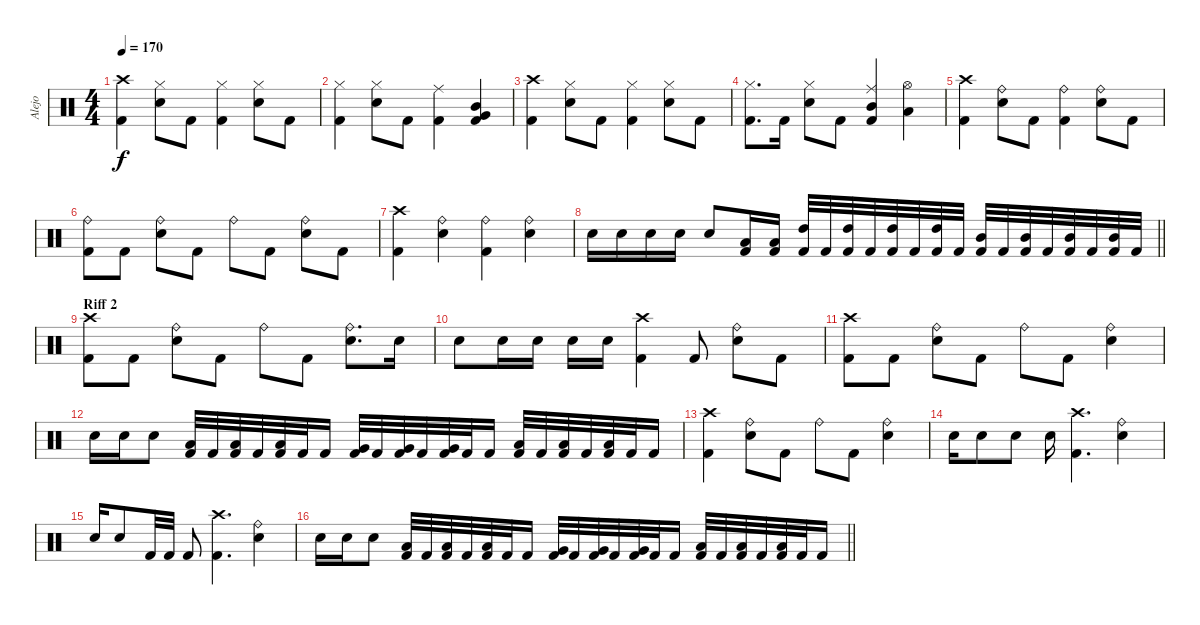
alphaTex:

\track ("Alejo" "Alejo") {instrument percussion}
\staff {score}
\articulation defaults
\ts (4 4)
\tempo 170
\clef neutral
\ks c
("Crash high (hit)" "Kick (hit) 2").4{dy f} ("Snare (hit) 2" "Hi-Hat (closed)").8 "Kick (hit) 2".8 ("Kick (hit) 2" "Hi-Hat (closed)").4 ("Snare (hit) 2" "Hi-Hat (closed)").8 "Kick (hit) 2".8 |
("Kick (hit) 2" "Hi-Hat (closed)").4 ("Snare (hit) 2" "Hi-Hat (closed)").8 "Kick (hit) 2".8 ("Kick (hit) 2" "Ride (middle)").4 ("Mid Tom (hit)" "Very Low Tom (hit)" "Kick (hit) 2").4 |
("Crash high (hit)" "Kick (hit) 2").4 ("Snare (hit) 2" "Hi-Hat (closed)").8 "Kick (hit) 2".8 ("Kick (hit) 2" "Hi-Hat (closed)").4 ("Snare (hit) 2" "Hi-Hat (closed)").8 "Kick (hit) 2".8 |
("Kick (hit) 2" "Hi-Hat (closed)").8{d} "Kick (hit) 2".16 ("Snare (hit) 2" "Hi-Hat (closed)").8 "Kick (hit) 2".8 ("Kick (hit) 2" "Ride (middle)" "Mid Tom (hit)").4 ("Hi-Hat (open)" "Low Tom (hit)").4 |
("Crash high (hit)" "Kick (hit) 2").4 ("Snare (hit) 2" "Ride (bell)").8 "Kick (hit) 2".8 ("Kick (hit) 2" "Ride (bell)").4 ("Snare (hit) 2" "Ride (bell)").8 "Kick (hit) 2".8 |
("Kick (hit) 2" "Ride (bell)").8 "Kick (hit) 2".8 ("Ride (bell)" "Snare (hit) 2").8 "Kick (hit) 2".8 "Ride (bell)".8 "Kick (hit) 2".8 ("Snare (hit) 2" "Ride (bell)").8 "Kick (hit) 2".8 |
("Crash high (hit)" "Kick (hit) 2").4 ("Snare (hit) 2" "Ride (bell)").4 ("Kick (hit) 2" "Ride (bell)").4 ("Snare (hit) 2" "Ride (bell)").4 |
\barLineRight lightlight "Snare (hit) 2".16 "Snare (hit) 2".16 "Snare (hit) 2".16 "Snare (hit) 2".16 "Snare (hit) 2".8
("Kick (hit) 2" "Low Tom (hit)").16 ("Kick (hit) 2" "Low Tom (hit)").16 ("Kick (hit) 2" "High Tom (hit)").32 "Kick (hit) 2".32 ("Kick (hit) 2" "High Tom (hit)").32 "Kick (hit) 2".32 ("Kick (hit) 2" "High Tom (hit)").32 "Kick (hit) 2".32 ("Kick (hit) 2" "High Tom (hit)").32 "Kick (hit) 2".32 ("Kick (hit) 2" "Mid Tom (hit)").32 "Kick (hit) 2".32 ("Kick (hit) 2" "Mid Tom (hit)").32 "Kick (hit) 2".32 ("Kick (hit) 2" "Mid Tom (hit)").32 "Kick (hit) 2".32 ("Kick (hit) 2" "Mid Tom (hit)").32 "Kick (hit) 2".32 |
\section ("" "Riff 2")
("Kick (hit) 2" "Crash high (hit)").8 "Kick (hit) 2".8 ("Ride (bell)" "Snare (hit) 2").8 "Kick (hit) 2".8 "Ride (bell)".8 "Kick (hit) 2".8 ("Snare (hit) 2" "Ride (bell)").8{d} "Snare (hit) 2".16 |
"Snare (hit) 2".8 "Snare (hit) 2".16 "Snare (hit) 2".16 "Snare (hit) 2".16 "Snare (hit) 2".16 ("Kick (hit) 2" "Crash high (hit)").4 "Kick (hit) 2".8 ("Ride (bell)" "Snare (hit) 2").8 "Kick (hit) 2".8 |
("Kick (hit) 2" "Crash high (hit)").8 "Kick (hit) 2".8 ("Ride (bell)" "Snare (hit) 2").8 "Kick (hit) 2".8 "Ride (bell)".8 "Kick (hit) 2".8 ("Snare (hit) 2" "Ride (bell)").4 |
"Snare (hit) 2".16 "Snare (hit) 2".16 "Snare (hit) 2".8 ("Kick (hit) 2" "Low Tom (hit)").32 "Kick (hit) 2".32 ("Kick (hit) 2" "Low Tom (hit)").32 "Kick (hit) 2".32 ("Kick (hit) 2" "Low Tom (hit)").32 "Kick (hit) 2".32 "Kick (hit) 2".16 ("Kick (hit) 2" "Very Low Tom (hit)").32 "Kick (hit) 2".32 ("Kick (hit) 2" "Very Low Tom (hit)").32 "Kick (hit) 2".32 ("Kick (hit) 2" "Very Low Tom (hit)").32 "Kick (hit) 2".32 "Kick (hit) 2".16 ("Kick (hit) 2" "Low Floor Tom (hit)").32 "Kick (hit) 2".32 ("Kick (hit) 2" "Low Floor Tom (hit)").32 "Kick (hit) 2".32 ("Kick (hit) 2" "Low Floor Tom (hit)").32 "Kick (hit) 2".32 "Kick (hit) 2".16 |
("Kick (hit) 2" "Crash high (hit)").4 ("Ride (bell)" "Snare (hit) 2").8 "Kick (hit) 2".8 "Ride (bell)".8 "Kick (hit) 2".8 ("Snare (hit) 2" "Ride (bell)").4 |
"Snare (hit) 2".16 "Snare (hit) 2".8 "Snare (hit) 2".8 "Snare (hit) 2".16 ("Kick (hit) 2" "Crash high (hit)").4{d} ("Snare (hit) 2" "Ride (bell)").4 |
"Snare (hit) 2".16 "Snare (hit) 2".8 "Kick (hit) 2".32 "Kick (hit) 2".32 "Kick (hit) 2".8 ("Kick (hit) 2" "Crash high (hit)").4{d} ("Snare (hit) 2" "Ride (bell)").4 |
\barLineRight lightlight "Snare (hit) 2".16 "Snare (hit) 2".16 "Snare (hit) 2".8
("Kick (hit) 2" "Low Tom (hit)").32 "Kick (hit) 2".32 ("Kick (hit) 2" "Low Tom (hit)").32 "Kick (hit) 2".32 ("Kick (hit) 2" "Low Tom (hit)").32 "Kick (hit) 2".32 "Kick (hit) 2".16 ("Kick (hit) 2" "Very Low Tom (hit)").32 "Kick (hit) 2".32 ("Kick (hit) 2" "Very Low Tom (hit)").32 "Kick (hit) 2".32 ("Kick (hit) 2" "Very Low Tom (hit)").32 "Kick (hit) 2".32 "Kick (hit) 2".16 ("Kick (hit) 2" "Low Floor Tom (hit)").32 "Kick (hit) 2".32 ("Kick (hit) 2" "Low Floor Tom (hit)").32 "Kick (hit) 2".32 ("Kick (hit) 2" "Low Floor Tom (hit)").32 "Kick (hit) 2".32 "Kick (hit) 2".16
